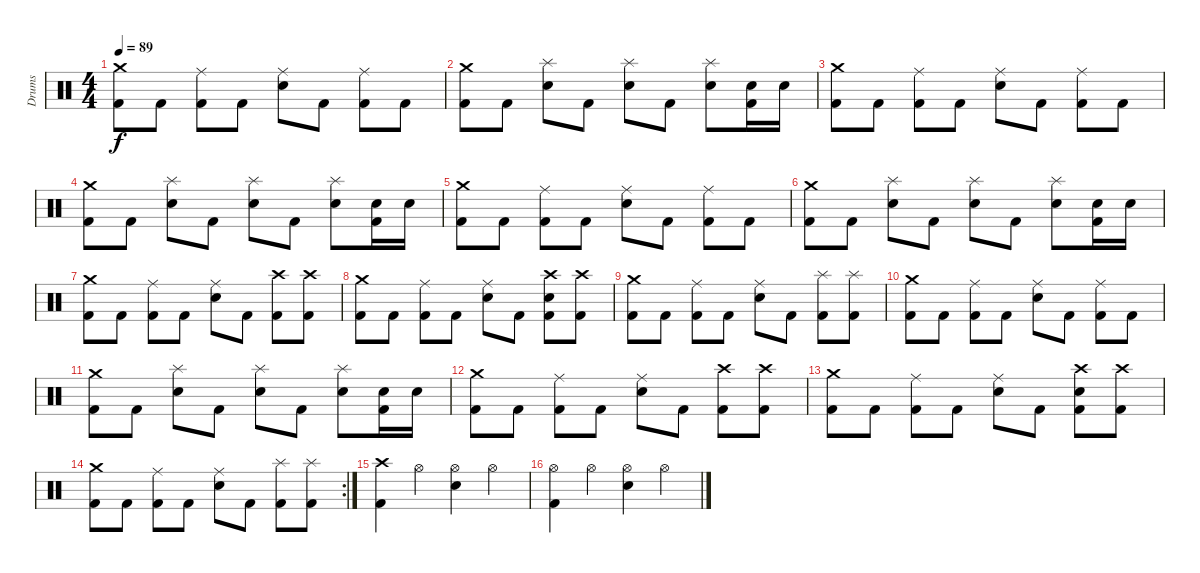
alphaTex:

\track ("Drums" "Drums") {instrument percussion}
\staff {score}
\articulation defaults
\ts (4 4)
\tempo 89
\clef neutral
\ks c
("Crash medium (hit)" "Kick (hit) 2").8{dy f} "Kick (hit) 2".8 ("Ride (middle)" "Kick (hit) 2").8 "Kick (hit) 2".8 ("Ride (middle)" "Snare (hit) 2").8 "Kick (hit) 2".8 ("Ride (middle)" "Kick (hit) 2").8 "Kick (hit) 2".8 |
("Crash medium (hit)" "Kick (hit) 2").8 "Kick (hit) 2".8 ("Splash (hit)" "Snare (hit) 2").8 "Kick (hit) 2".8 ("Splash (hit)" "Snare (hit) 2").8 "Kick (hit) 2".8 ("Splash (hit)" "Snare (hit) 2").8 ("Snare (hit) 2" "Kick (hit) 2").16 "Snare (hit) 2".16 |
("Crash medium (hit)" "Kick (hit) 2").8 "Kick (hit) 2".8 ("Ride (middle)" "Kick (hit) 2").8 "Kick (hit) 2".8 ("Ride (middle)" "Snare (hit) 2").8 "Kick (hit) 2".8 ("Ride (middle)" "Kick (hit) 2").8 "Kick (hit) 2".8 |
("Crash medium (hit)" "Kick (hit) 2").8 "Kick (hit) 2".8 ("Splash (hit)" "Snare (hit) 2").8 "Kick (hit) 2".8 ("Splash (hit)" "Snare (hit) 2").8 "Kick (hit) 2".8 ("Splash (hit)" "Snare (hit) 2").8 ("Snare (hit) 2" "Kick (hit) 2").16 "Snare (hit) 2".16 |
("Crash medium (hit)" "Kick (hit) 2").8 "Kick (hit) 2".8 ("Ride (middle)" "Kick (hit) 2").8 "Kick (hit) 2".8 ("Ride (middle)" "Snare (hit) 2").8 "Kick (hit) 2".8 ("Ride (middle)" "Kick (hit) 2").8 "Kick (hit) 2".8 |
("Crash medium (hit)" "Kick (hit) 2").8 "Kick (hit) 2".8 ("Splash (hit)" "Snare (hit) 2").8 "Kick (hit) 2".8 ("Splash (hit)" "Snare (hit) 2").8 "Kick (hit) 2".8 ("Splash (hit)" "Snare (hit) 2").8 ("Snare (hit) 2" "Kick (hit) 2").16 "Snare (hit) 2".16 |
("Crash medium (hit)" "Kick (hit) 2").8 "Kick (hit) 2".8 ("Ride (middle)" "Kick (hit) 2").8 "Kick (hit) 2".8 ("Ride (middle)" "Snare (hit) 2").8 "Kick (hit) 2".8 ("Crash high (hit)" "Kick (hit) 2").8 ("Crash high (hit)" "Kick (hit) 2").8 |
("Crash medium (hit)" "Kick (hit) 2").8 "Kick (hit) 2".8 ("Ride (middle)" "Kick (hit) 2").8 "Kick (hit) 2".8 ("Ride (middle)" "Snare (hit) 2").8 "Kick (hit) 2".8 ("Crash high (hit)" "Snare (hit) 2" "Kick (hit) 2").8 ("Crash high (hit)" "Kick (hit) 2").8 |
("Crash medium (hit)" "Kick (hit) 2").8 "Kick (hit) 2".8 ("Ride (middle)" "Kick (hit) 2").8 "Kick (hit) 2".8 ("Ride (middle)" "Snare (hit) 2").8 "Kick (hit) 2".8 ("Splash (hit)" "Kick (hit) 2").8 ("Splash (hit)" "Kick (hit) 2").8 |
("Crash medium (hit)" "Kick (hit) 2").8 "Kick (hit) 2".8 ("Ride (middle)" "Kick (hit) 2").8 "Kick (hit) 2".8 ("Ride (middle)" "Snare (hit) 2").8 "Kick (hit) 2".8 ("Ride (middle)" "Kick (hit) 2").8 "Kick (hit) 2".8 |
("Crash medium (hit)" "Kick (hit) 2").8 "Kick (hit) 2".8 ("Splash (hit)" "Snare (hit) 2").8 "Kick (hit) 2".8 ("Splash (hit)" "Snare (hit) 2").8 "Kick (hit) 2".8 ("Splash (hit)" "Snare (hit) 2").8 ("Snare (hit) 2" "Kick (hit) 2").16 "Snare (hit) 2".16 |
("Crash medium (hit)" "Kick (hit) 2").8 "Kick (hit) 2".8 ("Ride (middle)" "Kick (hit) 2").8 "Kick (hit) 2".8 ("Ride (middle)" "Snare (hit) 2").8 "Kick (hit) 2".8 ("Crash high (hit)" "Kick (hit) 2").8 ("Crash high (hit)" "Kick (hit) 2").8 |
("Crash medium (hit)" "Kick (hit) 2").8 "Kick (hit) 2".8 ("Ride (middle)" "Kick (hit) 2").8 "Kick (hit) 2".8 ("Ride (middle)" "Snare (hit) 2").8 "Kick (hit) 2".8 ("Crash high (hit)" "Snare (hit) 2" "Kick (hit) 2").8 ("Crash high (hit)" "Kick (hit) 2").8 |
\rc 2
("Crash medium (hit)" "Kick (hit) 2").8 "Kick (hit) 2".8 ("Ride (middle)" "Kick (hit) 2").8 "Kick (hit) 2".8 ("Ride (middle)" "Snare (hit) 2").8 "Kick (hit) 2".8 ("Splash (hit)" "Kick (hit) 2").8 ("Splash (hit)" "Kick (hit) 2").8 |
("Crash high (hit)" "Kick (hit) 2").4 "Hi-Hat (open)".4 ("Hi-Hat (open)" "Snare (hit) 2").4 "Hi-Hat (open)".4 |
("Hi-Hat (open)" "Kick (hit) 2").4 "Hi-Hat (open)".4 ("Hi-Hat (open)" "Snare (hit) 2").4 "Hi-Hat (open)".4
